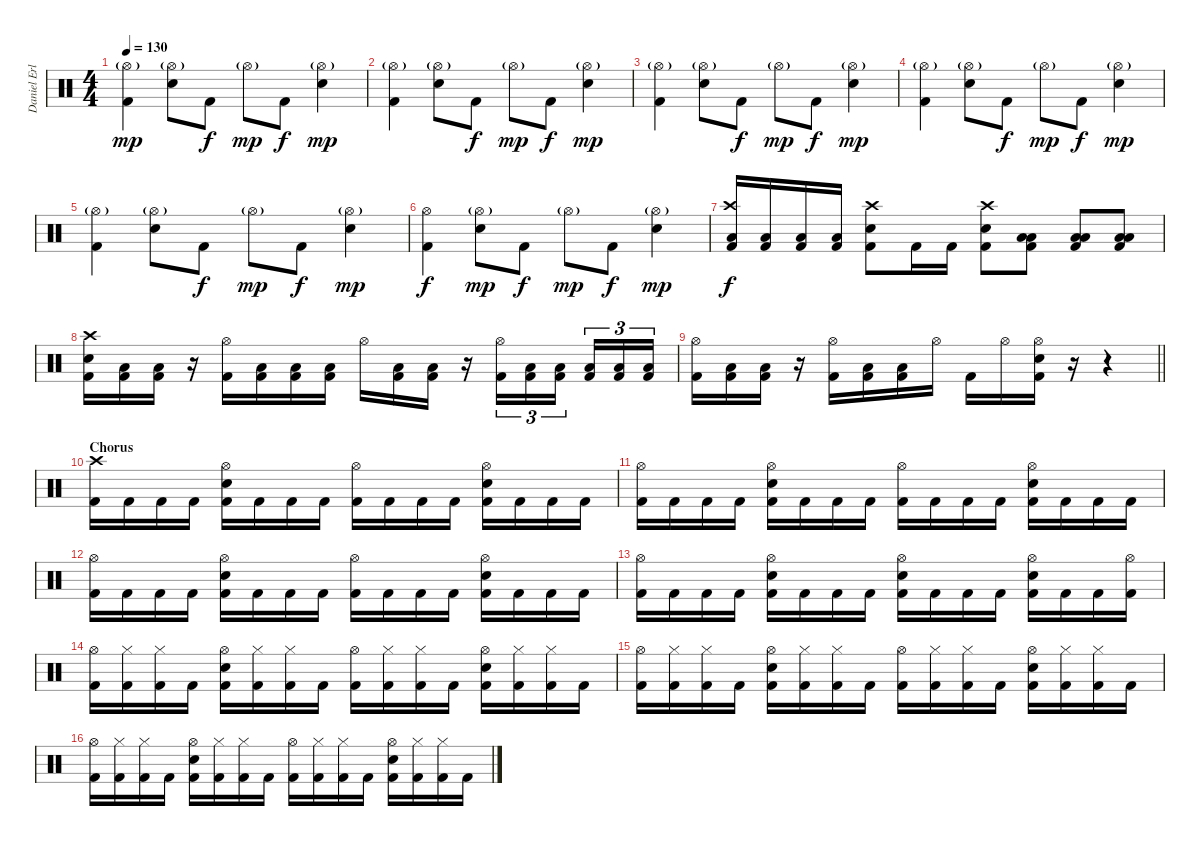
\track ("Daniel Erlandsson" "Daniel Erl") {instrument percussion}
\staff {score}
\articulation defaults
\ts (4 4)
\tempo 130
\clef neutral
\ks c
("Hi-Hat (open)"{g} "Kick (hit) 2").4{dy mp} ("Hi-Hat (open)"{g} "Snare (hit) 2").8 "Kick (hit) 2".8{dy f} "Hi-Hat (open)"{g}.8{dy mp} "Kick (hit) 2".8{dy f} ("Hi-Hat (open)"{g} "Snare (hit) 2").4{dy mp} |
("Hi-Hat (open)"{g} "Kick (hit) 2").4 ("Hi-Hat (open)"{g} "Snare (hit) 2").8 "Kick (hit) 2".8{dy f} "Hi-Hat (open)"{g}.8{dy mp} "Kick (hit) 2".8{dy f} ("Hi-Hat (open)"{g} "Snare (hit) 2").4{dy mp} |
("Hi-Hat (open)"{g} "Kick (hit) 2").4 ("Hi-Hat (open)"{g} "Snare (hit) 2").8 "Kick (hit) 2".8{dy f} "Hi-Hat (open)"{g}.8{dy mp} "Kick (hit) 2".8{dy f} ("Hi-Hat (open)"{g} "Snare (hit) 2").4{dy mp} |
("Hi-Hat (open)"{g} "Kick (hit) 2").4 ("Hi-Hat (open)"{g} "Snare (hit) 2").8 "Kick (hit) 2".8{dy f} "Hi-Hat (open)"{g}.8{dy mp} "Kick (hit) 2".8{dy f} ("Hi-Hat (open)"{g} "Snare (hit) 2").4{dy mp} |
("Hi-Hat (open)"{g} "Kick (hit) 2").4 ("Hi-Hat (open)"{g} "Snare (hit) 2").8 "Kick (hit) 2".8{dy f} "Hi-Hat (open)"{g}.8{dy mp} "Kick (hit) 2".8{dy f} ("Hi-Hat (open)"{g} "Snare (hit) 2").4{dy mp} |
("Hi-Hat (open)" "Kick (hit) 2").4{dy f} ("Hi-Hat (open)"{g} "Snare (hit) 2").8{dy mp} "Kick (hit) 2".8{dy f} "Hi-Hat (open)"{g}.8{dy mp} "Kick (hit) 2".8{dy f} ("Hi-Hat (open)"{g} "Snare (hit) 2").4{dy mp} |
("Crash high (hit)" "Low Floor Tom (hit)" "Kick (hit) 2").16{dy f} ("Low Floor Tom (hit)" "Kick (hit) 2").16 ("Low Floor Tom (hit)" "Kick (hit) 2").16 ("Low Floor Tom (hit)" "Kick (hit) 2").16 ("Crash high (hit)" "Snare (hit) 2" "Kick (hit) 2").8 "Kick (hit) 2".16 "Kick (hit) 2".16 ("Crash high (hit)" "Snare (hit) 2" "Kick (hit) 2").8 ("Low Tom (hit)" "Low Floor Tom (hit)" "Kick (hit) 2").8 ("Low Tom (hit)" "Low Floor Tom (hit)" "Kick (hit) 2").8 ("Low Tom (hit)" "Low Floor Tom (hit)" "Kick (hit) 2").8 |
("Crash high (hit)" "Snare (hit) 2" "Kick (hit) 2").16 ("Low Floor Tom (hit)" "Kick (hit) 2").16 ("Low Floor Tom (hit)" "Kick (hit) 2").16 r.16 ("Hi-Hat (open)" "Kick (hit) 2").16 ("Low Floor Tom (hit)" "Kick (hit) 2").16 ("Low Floor Tom (hit)" "Kick (hit) 2").16 ("Low Floor Tom (hit)" "Kick (hit) 2").16 "Hi-Hat (open)".16 ("Low Floor Tom (hit)" "Kick (hit) 2").16 ("Low Floor Tom (hit)" "Kick (hit) 2").16 r.16 ("Hi-Hat (open)" "Kick (hit) 2").16{tu (3 2)} ("Low Floor Tom (hit)" "Kick (hit) 2").16{tu (3 2)} ("Low Floor Tom (hit)" "Kick (hit) 2").16{tu (3 2) beam splitsecondary} ("Low Floor Tom (hit)" "Kick (hit) 2").16{tu (3 2)} ("Low Floor Tom (hit)" "Kick (hit) 2").16{tu (3 2)} ("Low Floor Tom (hit)" "Kick (hit) 2").16{tu (3 2)} |
\barLineRight lightlight
("Hi-Hat (open)" "Kick (hit) 2").16 ("Low Floor Tom (hit)" "Kick (hit) 2").16 ("Low Floor Tom (hit)" "Kick (hit) 2").16 r.16 ("Hi-Hat (open)" "Kick (hit) 2").16 ("Low Floor Tom (hit)" "Kick (hit) 2").16 ("Low Floor Tom (hit)" "Kick (hit) 2").16 "Hi-Hat (open)".16 "Kick (hit) 2".16 "Hi-Hat (open)".16 ("Hi-Hat (open)" "Snare (hit) 2" "Kick (hit) 2").16 r.16 r.4 |
\section ("" "Chorus")
("Crash high (hit)" "Kick (hit) 2").16 "Kick (hit) 2".16 "Kick (hit) 2".16 "Kick (hit) 2".16 ("Hi-Hat (open)" "Snare (hit) 2" "Kick (hit) 2").16 "Kick (hit) 2".16 "Kick (hit) 2".16 "Kick (hit) 2".16 ("Hi-Hat (open)" "Kick (hit) 2").16 "Kick (hit) 2".16 "Kick (hit) 2".16 "Kick (hit) 2".16 ("Hi-Hat (open)" "Snare (hit) 2" "Kick (hit) 2").16 "Kick (hit) 2".16 "Kick (hit) 2".16 "Kick (hit) 2".16 |
("Hi-Hat (open)" "Kick (hit) 2").16 "Kick (hit) 2".16 "Kick (hit) 2".16 "Kick (hit) 2".16 ("Hi-Hat (open)" "Snare (hit) 2" "Kick (hit) 2").16 "Kick (hit) 2".16 "Kick (hit) 2".16 "Kick (hit) 2".16 ("Hi-Hat (open)" "Kick (hit) 2").16 "Kick (hit) 2".16 "Kick (hit) 2".16 "Kick (hit) 2".16 ("Hi-Hat (open)" "Snare (hit) 2" "Kick (hit) 2").16 "Kick (hit) 2".16 "Kick (hit) 2".16 "Kick (hit) 2".16 |
("Hi-Hat (open)" "Kick (hit) 2").16 "Kick (hit) 2".16 "Kick (hit) 2".16 "Kick (hit) 2".16 ("Hi-Hat (open)" "Snare (hit) 2" "Kick (hit) 2").16 "Kick (hit) 2".16 "Kick (hit) 2".16 "Kick (hit) 2".16 ("Hi-Hat (open)" "Kick (hit) 2").16 "Kick (hit) 2".16 "Kick (hit) 2".16 "Kick (hit) 2".16 ("Hi-Hat (open)" "Snare (hit) 2" "Kick (hit) 2").16 "Kick (hit) 2".16 "Kick (hit) 2".16 "Kick (hit) 2".16 |
("Hi-Hat (open)" "Kick (hit) 2").16 "Kick (hit) 2".16 "Kick (hit) 2".16 "Kick (hit) 2".16 ("Hi-Hat (open)" "Snare (hit) 2" "Kick (hit) 2").16 "Kick (hit) 2".16 "Kick (hit) 2".16 "Kick (hit) 2".16 ("Hi-Hat (open)" "Snare (hit) 2" "Kick (hit) 2").16 "Kick (hit) 2".16 "Kick (hit) 2".16 "Kick (hit) 2".16 ("Hi-Hat (open)" "Snare (hit) 2" "Kick (hit) 2").16 "Kick (hit) 2".16 "Kick (hit) 2".16 ("Hi-Hat (open)" "Kick (hit) 2").16 |
("Hi-Hat (open)" "Kick (hit) 2").16 ("Hi-Hat (closed)" "Kick (hit) 2").16 ("Hi-Hat (closed)" "Kick (hit) 2").16 "Kick (hit) 2".16 ("Hi-Hat (open)" "Snare (hit) 2" "Kick (hit) 2").16 ("Hi-Hat (closed)" "Kick (hit) 2").16 ("Hi-Hat (closed)" "Kick (hit) 2").16 "Kick (hit) 2".16 ("Hi-Hat (open)" "Kick (hit) 2").16 ("Hi-Hat (closed)" "Kick (hit) 2").16 ("Hi-Hat (closed)" "Kick (hit) 2").16 "Kick (hit) 2".16 ("Hi-Hat (open)" "Snare (hit) 2" "Kick (hit) 2").16 ("Hi-Hat (closed)" "Kick (hit) 2").16 ("Hi-Hat (closed)" "Kick (hit) 2").16 "Kick (hit) 2".16 |
("Hi-Hat (open)" "Kick (hit) 2").16 ("Hi-Hat (closed)" "Kick (hit) 2").16 ("Hi-Hat (closed)" "Kick (hit) 2").16 "Kick (hit) 2".16 ("Hi-Hat (open)" "Snare (hit) 2" "Kick (hit) 2").16 ("Hi-Hat (closed)" "Kick (hit) 2").16 ("Hi-Hat (closed)" "Kick (hit) 2").16 "Kick (hit) 2".16 ("Hi-Hat (open)" "Kick (hit) 2").16 ("Hi-Hat (closed)" "Kick (hit) 2").16 ("Hi-Hat (closed)" "Kick (hit) 2").16 "Kick (hit) 2".16 ("Hi-Hat (open)" "Snare (hit) 2" "Kick (hit) 2").16 ("Hi-Hat (closed)" "Kick (hit) 2").16 ("Hi-Hat (closed)" "Kick (hit) 2").16 "Kick (hit) 2".16 |
("Hi-Hat (open)" "Kick (hit) 2").16 ("Hi-Hat (closed)" "Kick (hit) 2").16 ("Hi-Hat (closed)" "Kick (hit) 2").16 "Kick (hit) 2".16 ("Hi-Hat (open)" "Snare (hit) 2" "Kick (hit) 2").16 ("Hi-Hat (closed)" "Kick (hit) 2").16 ("Hi-Hat (closed)" "Kick (hit) 2").16 "Kick (hit) 2".16 ("Hi-Hat (open)" "Kick (hit) 2").16 ("Hi-Hat (closed)" "Kick (hit) 2").16 ("Hi-Hat (closed)" "Kick (hit) 2").16 "Kick (hit) 2".16 ("Hi-Hat (open)" "Snare (hit) 2" "Kick (hit) 2").16 ("Hi-Hat (closed)" "Kick (hit) 2").16 ("Hi-Hat (closed)" "Kick (hit) 2").16 "Kick (hit) 2".16
